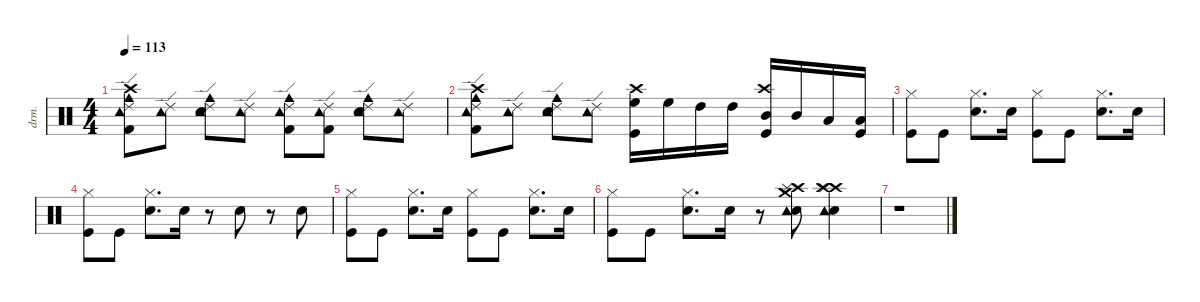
\defaultSystemsLayout 4
\hideDynamics
\bracketExtendMode nobrackets
\otherSystemsTrackNameOrientation horizontal
\track ("Rockey" "drm.") {instrument percussion}
\staff {score}
\articulation defaults
\ts (4 4)
\tempo 113
\clef neutral
\ks c
("Ride (edge) 2" "Crash high (hit)" "Cowbell medium (hit)" "Kick (hit) 2" "Tambourine (hit)").8{dy f beam Down} ("Ride (edge) 2" "Tambourine (hit)").8{beam Down} ("Ride (edge) 2" "Cowbell medium (hit)" "Snare (hit) 2" "Tambourine (hit)").8{beam Down} ("Ride (edge) 2" "Tambourine (hit)").8{beam Down} ("Ride (edge) 2" "Cowbell medium (hit)" "Kick (hit) 2" "Tambourine (hit)").8{beam Down} ("Ride (edge) 2" "Kick (hit) 2" "Tambourine (hit)").8{beam Down} ("Ride (edge) 2" "Cowbell medium (hit)" "Snare (hit) 2" "Tambourine (hit)").8{beam Down} ("Ride (edge) 2" "Tambourine (hit)").8{beam Down} |
("Ride (edge) 2" "Crash high (hit)" "Cowbell medium (hit)" "Kick (hit) 2" "Tambourine (hit)").8{beam Down} ("Ride (edge) 2" "Tambourine (hit)").8{beam Down} ("Ride (edge) 2" "Cowbell medium (hit)" "Snare (hit) 2" "Tambourine (hit)").8{beam Down} ("Ride (edge) 2" "Tambourine (hit)").8{beam Down} ("Crash high (hit)" "High Floor Tom (hit)" "Kick (hit)").16{beam Down} "High Floor Tom (hit)".16{beam Down} "High Tom (hit)".16{beam Down} "High Tom (hit)".16{beam Down} ("Crash high (hit)" "Mid Tom (hit)" "Kick (hit)").16{beam Up} "Mid Tom (hit)".16{beam Up} "Low Tom (hit)".16{beam Up} ("Low Tom (hit)" "Kick (hit)").16{beam Up} |
("Hi-Hat (closed)" "Kick (hit)").8{beam Down} "Kick (hit)".8{beam Down} ("Hi-Hat (closed)" "Snare (hit) 2").8{d beam Down} "Snare (hit) 2".16{beam Down} ("Hi-Hat (closed)" "Kick (hit)").8{beam Down} "Kick (hit)".8{beam Down} ("Hi-Hat (closed)" "Snare (hit) 2").8{d beam Down} "Snare (hit) 2".16{beam Down} |
("Hi-Hat (closed)" "Kick (hit)").8{beam Down} "Kick (hit)".8{beam Down} ("Hi-Hat (closed)" "Snare (hit) 2").8{d beam Down} "Snare (hit) 2".16{beam Down} r.8{beam Down} "Snare (hit) 2".8{beam Down} r.8{beam Down} "Snare (hit) 2".8{beam Down} |
("Hi-Hat (closed)" "Kick (hit)").8{beam Down} "Kick (hit)".8{beam Down} ("Hi-Hat (closed)" "Snare (hit) 2").8{d beam Down} "Snare (hit) 2".16{beam Down} ("Hi-Hat (closed)" "Kick (hit)").8{beam Down} "Kick (hit)".8{beam Down} ("Hi-Hat (closed)" "Snare (hit) 2").8{d beam Down} "Snare (hit) 2".16{beam Down} |
("Hi-Hat (closed)" "Kick (hit)").8{beam Down} "Kick (hit)".8{beam Down} ("Hi-Hat (closed)" "Snare (hit) 2").8{d beam Down} "Snare (hit) 2".16{beam Down} r.8{beam Down} ("Crash high (hit)" "Splash (hit)" "Crash medium (hit)" "Snare (hit) 2" "Tambourine (hit)").8{beam Down} ("Crash high (hit)" "Splash (hit)" "Crash high (hit)" "Snare (hit) 2" "Tambourine (hit)").4{beam Down} |
r.1{beam Down}
